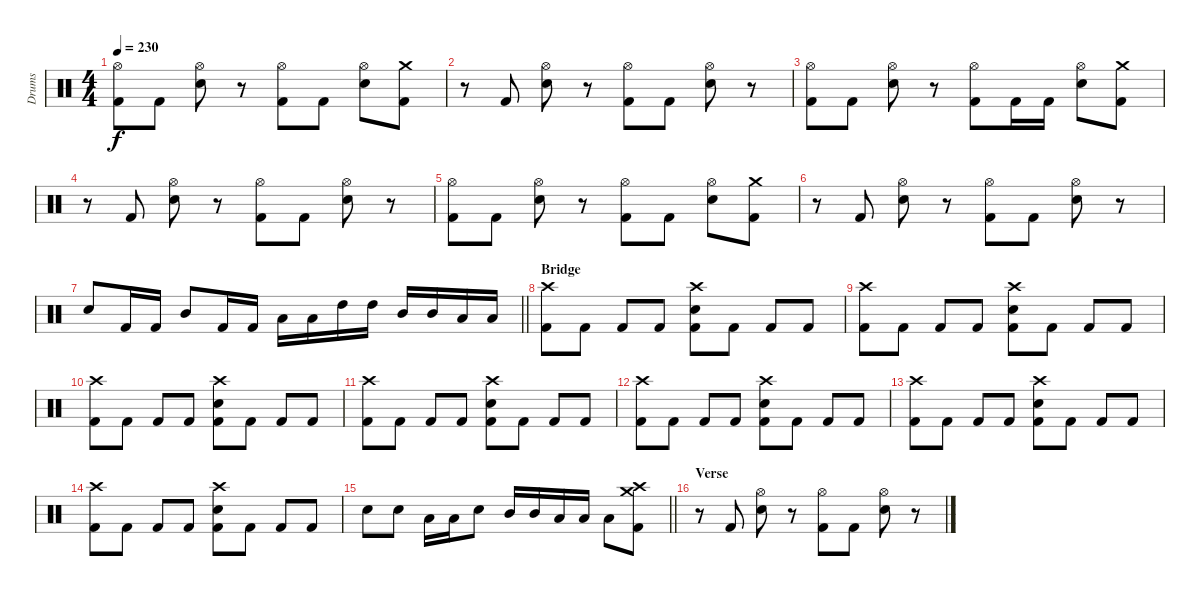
\track ("Drums" "Drums") {instrument percussion}
\staff {score}
\articulation defaults
\ts (4 4)
\tempo 230
\clef neutral
\ks c
("Hi-Hat (open)" "Kick (hit) 2").8{dy f} "Kick (hit) 2".8 ("Hi-Hat (open)" "Electric Snare (hit)").8 r.8 ("Hi-Hat (open)" "Kick (hit) 2").8 "Kick (hit) 2".8 ("Hi-Hat (open)" "Electric Snare (hit)").8 ("Crash medium (hit)" "Kick (hit) 2").8 |
r.8 "Kick (hit) 2".8 ("Hi-Hat (open)" "Electric Snare (hit)").8 r.8 ("Hi-Hat (open)" "Kick (hit) 2").8 "Kick (hit) 2".8 ("Hi-Hat (open)" "Electric Snare (hit)").8 r.8 |
("Hi-Hat (open)" "Kick (hit) 2").8 "Kick (hit) 2".8 ("Hi-Hat (open)" "Electric Snare (hit)").8 r.8 ("Hi-Hat (open)" "Kick (hit) 2").8 "Kick (hit) 2".16 "Kick (hit) 2".16 ("Hi-Hat (open)" "Electric Snare (hit)").8 ("Crash medium (hit)" "Kick (hit) 2").8 |
r.8 "Kick (hit) 2".8 ("Hi-Hat (open)" "Electric Snare (hit)").8 r.8 ("Hi-Hat (open)" "Kick (hit) 2").8 "Kick (hit) 2".8 ("Hi-Hat (open)" "Electric Snare (hit)").8 r.8 |
("Hi-Hat (open)" "Kick (hit) 2").8 "Kick (hit) 2".8 ("Hi-Hat (open)" "Electric Snare (hit)").8 r.8 ("Hi-Hat (open)" "Kick (hit) 2").8 "Kick (hit) 2".8 ("Hi-Hat (open)" "Electric Snare (hit)").8 ("Crash medium (hit)" "Kick (hit) 2").8 |
r.8 "Kick (hit) 2".8 ("Hi-Hat (open)" "Electric Snare (hit)").8 r.8 ("Hi-Hat (open)" "Kick (hit) 2").8 "Kick (hit) 2".8 ("Hi-Hat (open)" "Electric Snare (hit)").8 r.8 |
\barLineRight lightlight "Electric Snare (hit)".8 "Kick (hit) 2".16 "Kick (hit) 2".16 "Mid Tom (hit)".8 "Kick (hit) 2".16 "Kick (hit) 2".16 "Low Tom (hit)".16 "Low Tom (hit)".16 "High Tom (hit)".16 "High Tom (hit)".16 "Mid Tom (hit)".16 "Mid Tom (hit)".16 "Low Tom (hit)".16 "Low Tom (hit)".16
|
\section ("" "Bridge")
("Crash high (hit)" "Kick (hit) 2").8 "Kick (hit) 2".8 "Kick (hit) 2".8 "Kick (hit) 2".8 ("Crash high (hit)" "Electric Snare (hit)" "Kick (hit) 2").8 "Kick (hit) 2".8 "Kick (hit) 2".8 "Kick (hit) 2".8 |
("Crash high (hit)" "Kick (hit) 2").8 "Kick (hit) 2".8 "Kick (hit) 2".8 "Kick (hit) 2".8 ("Crash high (hit)" "Electric Snare (hit)" "Kick (hit) 2").8 "Kick (hit) 2".8 "Kick (hit) 2".8 "Kick (hit) 2".8 |
("Crash high (hit)" "Kick (hit) 2").8 "Kick (hit) 2".8 "Kick (hit) 2".8 "Kick (hit) 2".8 ("Crash high (hit)" "Electric Snare (hit)" "Kick (hit) 2").8 "Kick (hit) 2".8 "Kick (hit) 2".8 "Kick (hit) 2".8 |
("Crash high (hit)" "Kick (hit) 2").8 "Kick (hit) 2".8 "Kick (hit) 2".8 "Kick (hit) 2".8 ("Crash high (hit)" "Electric Snare (hit)" "Kick (hit) 2").8 "Kick (hit) 2".8 "Kick (hit) 2".8 "Kick (hit) 2".8 |
("Crash high (hit)" "Kick (hit) 2").8 "Kick (hit) 2".8 "Kick (hit) 2".8 "Kick (hit) 2".8 ("Crash high (hit)" "Electric Snare (hit)" "Kick (hit) 2").8 "Kick (hit) 2".8 "Kick (hit) 2".8 "Kick (hit) 2".8 |
("Crash high (hit)" "Kick (hit) 2").8 "Kick (hit) 2".8 "Kick (hit) 2".8 "Kick (hit) 2".8 ("Crash high (hit)" "Electric Snare (hit)" "Kick (hit) 2").8 "Kick (hit) 2".8 "Kick (hit) 2".8 "Kick (hit) 2".8 |
("Crash high (hit)" "Kick (hit) 2").8 "Kick (hit) 2".8 "Kick (hit) 2".8 "Kick (hit) 2".8 ("Crash high (hit)" "Electric Snare (hit)" "Kick (hit) 2").8 "Kick (hit) 2".8 "Kick (hit) 2".8 "Kick (hit) 2".8 |
\barLineRight lightlight "Electric Snare (hit)".8 "Electric Snare (hit)".8 "Low Tom (hit)".16 "Low Tom (hit)".16 "Electric Snare (hit)".8 "Mid Tom (hit)".16 "Mid Tom (hit)".16 "Low Tom (hit)".16 "Low Tom (hit)".16 "Low Tom (hit)".8
("Crash high (hit)" "Crash medium (hit)" "Kick (hit) 2").8 |
\section ("" "Verse")
r.8 "Kick (hit) 2".8 ("Hi-Hat (open)" "Electric Snare (hit)").8 r.8 ("Hi-Hat (open)" "Kick (hit) 2").8 "Kick (hit) 2".8 ("Hi-Hat (open)" "Electric Snare (hit)").8 r.8
